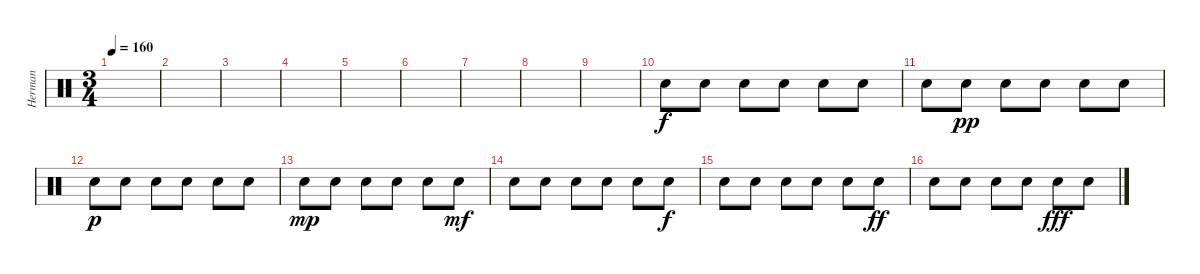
\track ("Herman" "Herman") {instrument percussion}
\staff {score}
\articulation defaults
\ts (3 4)
\tempo 160
\clef neutral
\ks c
|
|
|
|
|
|
|
|
|
"Electric Snare (hit)".8 "Electric Snare (hit)".8 "Electric Snare (hit)".8 "Electric Snare (hit)".8 "Electric Snare (hit)".8 "Electric Snare (hit)".8 |
"Electric Snare (hit)".8 "Electric Snare (hit)".8{dy pp} "Electric Snare (hit)".8 "Electric Snare (hit)".8 "Electric Snare (hit)".8 "Electric Snare (hit)".8 |
"Electric Snare (hit)".8{dy p} "Electric Snare (hit)".8 "Electric Snare (hit)".8 "Electric Snare (hit)".8 "Electric Snare (hit)".8 "Electric Snare (hit)".8 |
"Electric Snare (hit)".8{dy mp} "Electric Snare (hit)".8 "Electric Snare (hit)".8 "Electric Snare (hit)".8 "Electric Snare (hit)".8 "Electric Snare (hit)".8{dy mf} |
"Electric Snare (hit)".8 "Electric Snare (hit)".8 "Electric Snare (hit)".8 "Electric Snare (hit)".8 "Electric Snare (hit)".8 "Electric Snare (hit)".8{dy f} |
"Electric Snare (hit)".8 "Electric Snare (hit)".8 "Electric Snare (hit)".8 "Electric Snare (hit)".8 "Electric Snare (hit)".8 "Electric Snare (hit)".8{dy ff} |
"Electric Snare (hit)".8 "Electric Snare (hit)".8 "Electric Snare (hit)".8 "Electric Snare (hit)".8 "Electric Snare (hit)".8{dy fff} "Electric Snare (hit)".8
